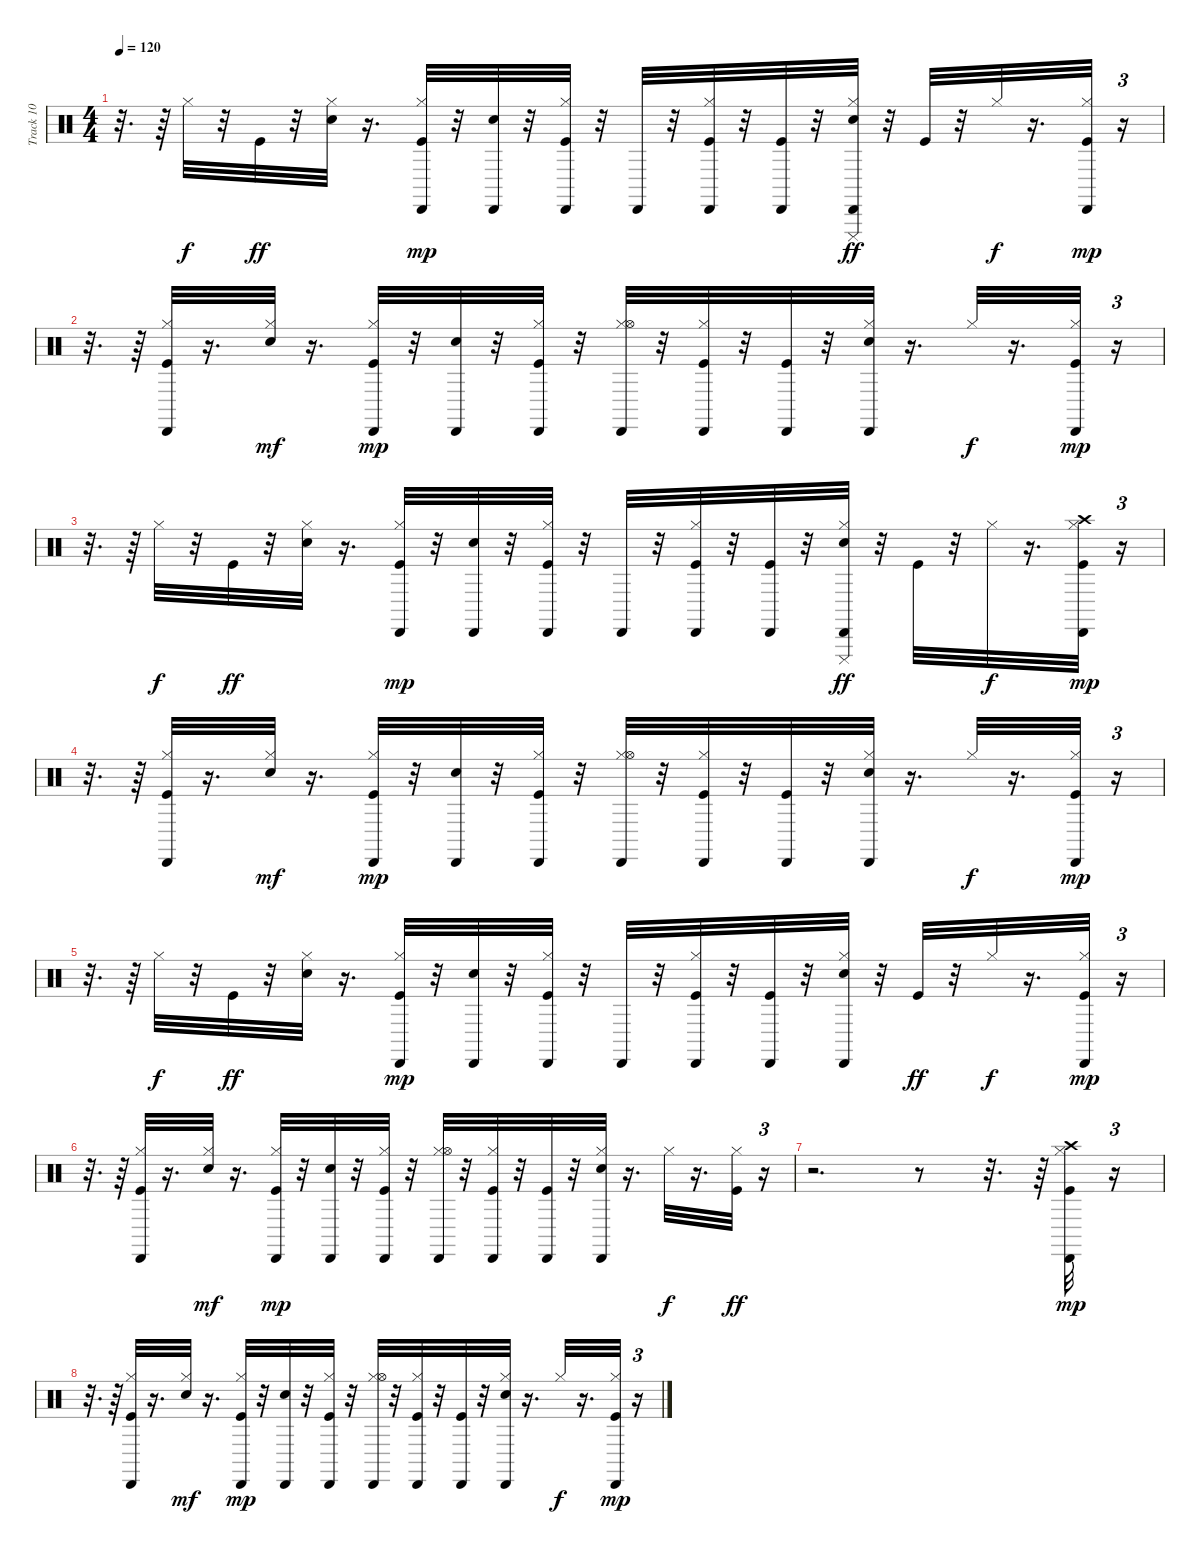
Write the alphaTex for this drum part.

\track ("Track 10" "Track 10") {instrument percussion}
\staff {score}
\articulation defaults
\ts (4 4)
\tempo 120
\clef neutral
\ks c
r.32{d dy mp} r.64 "Hi-Hat (closed)".32{dy f} r.32 "Kick (hit)".32{dy ff} r.32 ("Electric Snare (hit)" "Hi-Hat (closed)").32 r.16{d} ("Kick (hit)" "Hi-Hat (closed)" "Cabasa (hit)").32{dy mp} r.32 ("Electric Snare (hit)" "Cabasa (hit)").32 r.32 ("Kick (hit)" "Hi-Hat (closed)" "Cabasa (hit)").32 r.32 "Cabasa (hit)".32 r.32 ("Kick (hit)" "Hi-Hat (closed)" "Cabasa (hit)").32 r.32 ("Kick (hit)" "Cabasa (hit)").32 r.32 ("Electric Snare (hit)" "Hi-Hat (closed)" "Cabasa (hit)" "Cuica (mute)").32{dy ff} r.32 "Kick (hit)".32 r.32 "Hi-Hat (closed)".32{dy f} r.16{d} ("Kick (hit)" "Hi-Hat (closed)" "Cabasa (hit)").32{dy mp} r.16{tu (3 2)} |
r.32{d} r.64 ("Kick (hit)" "Hi-Hat (closed)" "Cabasa (hit)").32 r.16{d} ("Electric Snare (hit)" "Hi-Hat (closed)").32{dy mf} r.16{d} ("Kick (hit)" "Hi-Hat (closed)" "Cabasa (hit)").32{dy mp} r.32 ("Electric Snare (hit)" "Cabasa (hit)").32 r.32 ("Kick (hit)" "Hi-Hat (closed)" "Cabasa (hit)").32 r.32 ("Hi-Hat (closed)" "Hi-Hat (open)" "Cabasa (hit)").32 r.32 ("Kick (hit)" "Hi-Hat (closed)" "Cabasa (hit)").32 r.32 ("Kick (hit)" "Cabasa (hit)").32 r.32 ("Electric Snare (hit)" "Hi-Hat (closed)" "Cabasa (hit)").32 r.16{d} "Hi-Hat (closed)".32{dy f} r.16{d} ("Kick (hit)" "Hi-Hat (closed)" "Cabasa (hit)").32{dy mp} r.16{tu (3 2)} |
r.32{d} r.64 "Hi-Hat (closed)".32{dy f} r.32 "Kick (hit)".32{dy ff} r.32 ("Electric Snare (hit)" "Hi-Hat (closed)").32 r.16{d} ("Kick (hit)" "Hi-Hat (closed)" "Cabasa (hit)").32{dy mp} r.32 ("Electric Snare (hit)" "Cabasa (hit)").32 r.32 ("Kick (hit)" "Hi-Hat (closed)" "Cabasa (hit)").32 r.32 "Cabasa (hit)".32 r.32 ("Kick (hit)" "Hi-Hat (closed)" "Cabasa (hit)").32 r.32 ("Kick (hit)" "Cabasa (hit)").32 r.32 ("Electric Snare (hit)" "Hi-Hat (closed)" "Cabasa (hit)" "Cuica (mute)").32{dy ff} r.32 "Kick (hit)".32 r.32 "Hi-Hat (closed)".32{dy f} r.16{d} ("Kick (hit)" "Hi-Hat (closed)" "Crash high (hit)" "Cabasa (hit)").32{dy mp} r.16{tu (3 2)} |
r.32{d} r.64 ("Kick (hit)" "Hi-Hat (closed)" "Cabasa (hit)").32 r.16{d} ("Electric Snare (hit)" "Hi-Hat (closed)").32{dy mf} r.16{d} ("Kick (hit)" "Hi-Hat (closed)" "Cabasa (hit)").32{dy mp} r.32 ("Electric Snare (hit)" "Cabasa (hit)").32 r.32 ("Kick (hit)" "Hi-Hat (closed)" "Cabasa (hit)").32 r.32 ("Hi-Hat (closed)" "Hi-Hat (open)" "Cabasa (hit)").32 r.32 ("Kick (hit)" "Hi-Hat (closed)" "Cabasa (hit)").32 r.32 ("Kick (hit)" "Cabasa (hit)").32 r.32 ("Electric Snare (hit)" "Hi-Hat (closed)" "Cabasa (hit)").32 r.16{d} "Hi-Hat (closed)".32{dy f} r.16{d} ("Kick (hit)" "Hi-Hat (closed)" "Cabasa (hit)").32{dy mp} r.16{tu (3 2)} |
r.32{d} r.64 "Hi-Hat (closed)".32{dy f} r.32 "Kick (hit)".32{dy ff} r.32 ("Electric Snare (hit)" "Hi-Hat (closed)").32 r.16{d} ("Kick (hit)" "Hi-Hat (closed)" "Cabasa (hit)").32{dy mp} r.32 ("Electric Snare (hit)" "Cabasa (hit)").32 r.32 ("Kick (hit)" "Hi-Hat (closed)" "Cabasa (hit)").32 r.32 "Cabasa (hit)".32 r.32 ("Kick (hit)" "Hi-Hat (closed)" "Cabasa (hit)").32 r.32 ("Kick (hit)" "Cabasa (hit)").32 r.32 ("Electric Snare (hit)" "Hi-Hat (closed)" "Cabasa (hit)").32 r.32 "Kick (hit)".32{dy ff} r.32 "Hi-Hat (closed)".32{dy f} r.16{d} ("Kick (hit)" "Hi-Hat (closed)" "Cabasa (hit)").32{dy mp} r.16{tu (3 2)} |
r.32{d} r.64 ("Kick (hit)" "Hi-Hat (closed)" "Cabasa (hit)").32 r.16{d} ("Electric Snare (hit)" "Hi-Hat (closed)").32{dy mf} r.16{d} ("Kick (hit)" "Hi-Hat (closed)" "Cabasa (hit)").32{dy mp} r.32 ("Electric Snare (hit)" "Cabasa (hit)").32 r.32 ("Kick (hit)" "Hi-Hat (closed)" "Cabasa (hit)").32 r.32 ("Hi-Hat (closed)" "Hi-Hat (open)" "Cabasa (hit)").32 r.32 ("Kick (hit)" "Hi-Hat (closed)" "Cabasa (hit)").32 r.32 ("Kick (hit)" "Cabasa (hit)").32 r.32 ("Electric Snare (hit)" "Hi-Hat (closed)" "Cabasa (hit)").32 r.16{d} "Hi-Hat (closed)".32{dy f} r.16{d} ("Kick (hit)" "Hi-Hat (closed)").32{dy ff} r.16{tu (3 2)} |
r.2{d} r.8 r.32{d} r.64 ("Kick (hit)" "Hi-Hat (closed)" "Crash high (hit)" "Cabasa (hit)").32{dy mp} r.16{tu (3 2)} |
r.32{d} r.64 ("Kick (hit)" "Hi-Hat (closed)" "Cabasa (hit)").32 r.16{d} ("Electric Snare (hit)" "Hi-Hat (closed)").32{dy mf} r.16{d} ("Kick (hit)" "Hi-Hat (closed)" "Cabasa (hit)").32{dy mp} r.32 ("Electric Snare (hit)" "Cabasa (hit)").32 r.32 ("Kick (hit)" "Hi-Hat (closed)" "Cabasa (hit)").32 r.32 ("Hi-Hat (closed)" "Hi-Hat (open)" "Cabasa (hit)").32 r.32 ("Kick (hit)" "Hi-Hat (closed)" "Cabasa (hit)").32 r.32 ("Kick (hit)" "Cabasa (hit)").32 r.32 ("Electric Snare (hit)" "Hi-Hat (closed)" "Cabasa (hit)").32 r.16{d} "Hi-Hat (closed)".32{dy f} r.16{d} ("Kick (hit)" "Hi-Hat (closed)" "Cabasa (hit)").32{dy mp} r.16{tu (3 2)}
